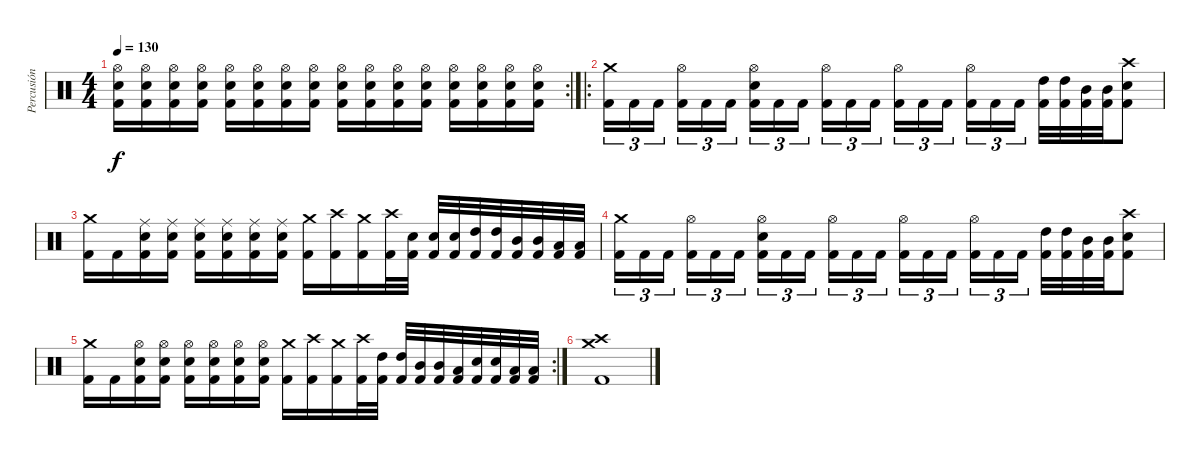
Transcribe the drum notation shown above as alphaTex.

\track ("Percusión" "Percusión") {instrument percussion}
\staff {score}
\articulation defaults
\rc 2
\ts (4 4)
\tempo 130
\clef neutral
\ks c
("Hi-Hat (open)" "Electric Snare (hit)" "Kick (hit) 2").16{dy f} ("Hi-Hat (open)" "Electric Snare (hit)" "Kick (hit) 2").16 ("Hi-Hat (open)" "Electric Snare (hit)" "Kick (hit) 2").16 ("Hi-Hat (open)" "Electric Snare (hit)" "Kick (hit) 2").16 ("Hi-Hat (open)" "Electric Snare (hit)" "Kick (hit) 2").16 ("Hi-Hat (open)" "Electric Snare (hit)" "Kick (hit) 2").16 ("Hi-Hat (open)" "Electric Snare (hit)" "Kick (hit) 2").16 ("Hi-Hat (open)" "Electric Snare (hit)" "Kick (hit) 2").16 ("Hi-Hat (open)" "Electric Snare (hit)" "Kick (hit) 2").16 ("Hi-Hat (open)" "Electric Snare (hit)" "Kick (hit) 2").16 ("Hi-Hat (open)" "Electric Snare (hit)" "Kick (hit) 2").16 ("Hi-Hat (open)" "Electric Snare (hit)" "Kick (hit) 2").16 ("Hi-Hat (open)" "Electric Snare (hit)" "Kick (hit) 2").16 ("Hi-Hat (open)" "Electric Snare (hit)" "Kick (hit) 2").16 ("Hi-Hat (open)" "Electric Snare (hit)" "Kick (hit) 2").16 ("Hi-Hat (open)" "Electric Snare (hit)" "Kick (hit) 2").16 |
\ro
("Crash medium (hit)" "Kick (hit) 2").16{tu (3 2)} "Kick (hit) 2".16{tu (3 2)} "Kick (hit) 2".16{tu (3 2)} ("Hi-Hat (open)" "Kick (hit) 2").16{tu (3 2)} "Kick (hit) 2".16{tu (3 2)} "Kick (hit) 2".16{tu (3 2)} ("Hi-Hat (open)" "Electric Snare (hit)" "Kick (hit) 2").16{tu (3 2)} "Kick (hit) 2".16{tu (3 2)} "Kick (hit) 2".16{tu (3 2)} ("Hi-Hat (open)" "Kick (hit) 2").16{tu (3 2)} "Kick (hit) 2".16{tu (3 2)} "Kick (hit) 2".16{tu (3 2)} ("Hi-Hat (open)" "Kick (hit) 2").16{tu (3 2)} "Kick (hit) 2".16{tu (3 2)} "Kick (hit) 2".16{tu (3 2)} ("Hi-Hat (open)" "Kick (hit) 2").16{tu (3 2)} "Kick (hit) 2".16{tu (3 2)} "Kick (hit) 2".16{tu (3 2)} ("High Tom (hit)" "Kick (hit) 2").32 ("High Tom (hit)" "Kick (hit) 2").32 ("Mid Tom (hit)" "Kick (hit) 2").32 ("Mid Tom (hit)" "Kick (hit) 2").32 ("Crash high (hit)" "Electric Snare (hit)" "Kick (hit) 2").8 |
("Crash medium (hit)" "Kick (hit) 2").16 "Kick (hit) 2".16 ("Ride (middle)" "Electric Snare (hit)" "Kick (hit) 2").16 ("Ride (middle)" "Electric Snare (hit)" "Kick (hit) 2").16 ("Ride (middle)" "Electric Snare (hit)" "Kick (hit) 2").16 ("Ride (middle)" "Electric Snare (hit)" "Kick (hit) 2").16 ("Ride (middle)" "Electric Snare (hit)" "Kick (hit) 2").16 ("Ride (middle)" "Electric Snare (hit)" "Kick (hit) 2").16 ("Crash medium (hit)" "Kick (hit) 2").16 ("Crash high (hit)" "Kick (hit) 2").16 ("Crash medium (hit)" "Kick (hit) 2").16 ("Crash high (hit)" "Kick (hit) 2").32 ("Electric Snare (hit)" "Kick (hit) 2").32 ("Electric Snare (hit)" "Kick (hit) 2").32 ("Electric Snare (hit)" "Kick (hit) 2").32 ("High Tom (hit)" "Kick (hit) 2").32 ("High Tom (hit)" "Kick (hit) 2").32 ("Mid Tom (hit)" "Kick (hit) 2").32 ("Mid Tom (hit)" "Kick (hit) 2").32 ("Low Tom (hit)" "Kick (hit) 2").32 ("Low Tom (hit)" "Kick (hit) 2").32 |
("Crash medium (hit)" "Kick (hit) 2").16{tu (3 2)} "Kick (hit) 2".16{tu (3 2)} "Kick (hit) 2".16{tu (3 2)} ("Hi-Hat (open)" "Kick (hit) 2").16{tu (3 2)} "Kick (hit) 2".16{tu (3 2)} "Kick (hit) 2".16{tu (3 2)} ("Hi-Hat (open)" "Electric Snare (hit)" "Kick (hit) 2").16{tu (3 2)} "Kick (hit) 2".16{tu (3 2)} "Kick (hit) 2".16{tu (3 2)} ("Hi-Hat (open)" "Kick (hit) 2").16{tu (3 2)} "Kick (hit) 2".16{tu (3 2)} "Kick (hit) 2".16{tu (3 2)} ("Hi-Hat (open)" "Kick (hit) 2").16{tu (3 2)} "Kick (hit) 2".16{tu (3 2)} "Kick (hit) 2".16{tu (3 2)} ("Hi-Hat (open)" "Kick (hit) 2").16{tu (3 2)} "Kick (hit) 2".16{tu (3 2)} "Kick (hit) 2".16{tu (3 2)} ("High Tom (hit)" "Kick (hit) 2").32 ("High Tom (hit)" "Kick (hit) 2").32 ("Mid Tom (hit)" "Kick (hit) 2").32 ("Mid Tom (hit)" "Kick (hit) 2").32 ("Crash high (hit)" "Electric Snare (hit)" "Kick (hit) 2").8 |
\rc 2
("Crash medium (hit)" "Kick (hit) 2").16 "Kick (hit) 2".16 ("Hi-Hat (open)" "Electric Snare (hit)" "Kick (hit) 2").16 ("Hi-Hat (open)" "Electric Snare (hit)" "Kick (hit) 2").16 ("Hi-Hat (open)" "Electric Snare (hit)" "Kick (hit) 2").16 ("Hi-Hat (open)" "Electric Snare (hit)" "Kick (hit) 2").16 ("Hi-Hat (open)" "Electric Snare (hit)" "Kick (hit) 2").16 ("Hi-Hat (open)" "Electric Snare (hit)" "Kick (hit) 2").16 ("Crash medium (hit)" "Kick (hit) 2").16 ("Crash high (hit)" "Kick (hit) 2").16 ("Crash medium (hit)" "Kick (hit) 2").16 ("Crash high (hit)" "Kick (hit) 2").32 ("High Tom (hit)" "Kick (hit) 2").32 ("High Tom (hit)" "Kick (hit) 2").32 ("Mid Tom (hit)" "Kick (hit) 2").32 ("Mid Tom (hit)" "Kick (hit) 2").32 ("Low Tom (hit)" "Kick (hit) 2").32 ("Electric Snare (hit)" "Kick (hit) 2").32 ("Electric Snare (hit)" "Kick (hit) 2").32 ("Low Tom (hit)" "Kick (hit) 2").32 ("Low Tom (hit)" "Kick (hit) 2").32 |
("Crash high (hit)" "Crash medium (hit)" "Kick (hit) 2").1
